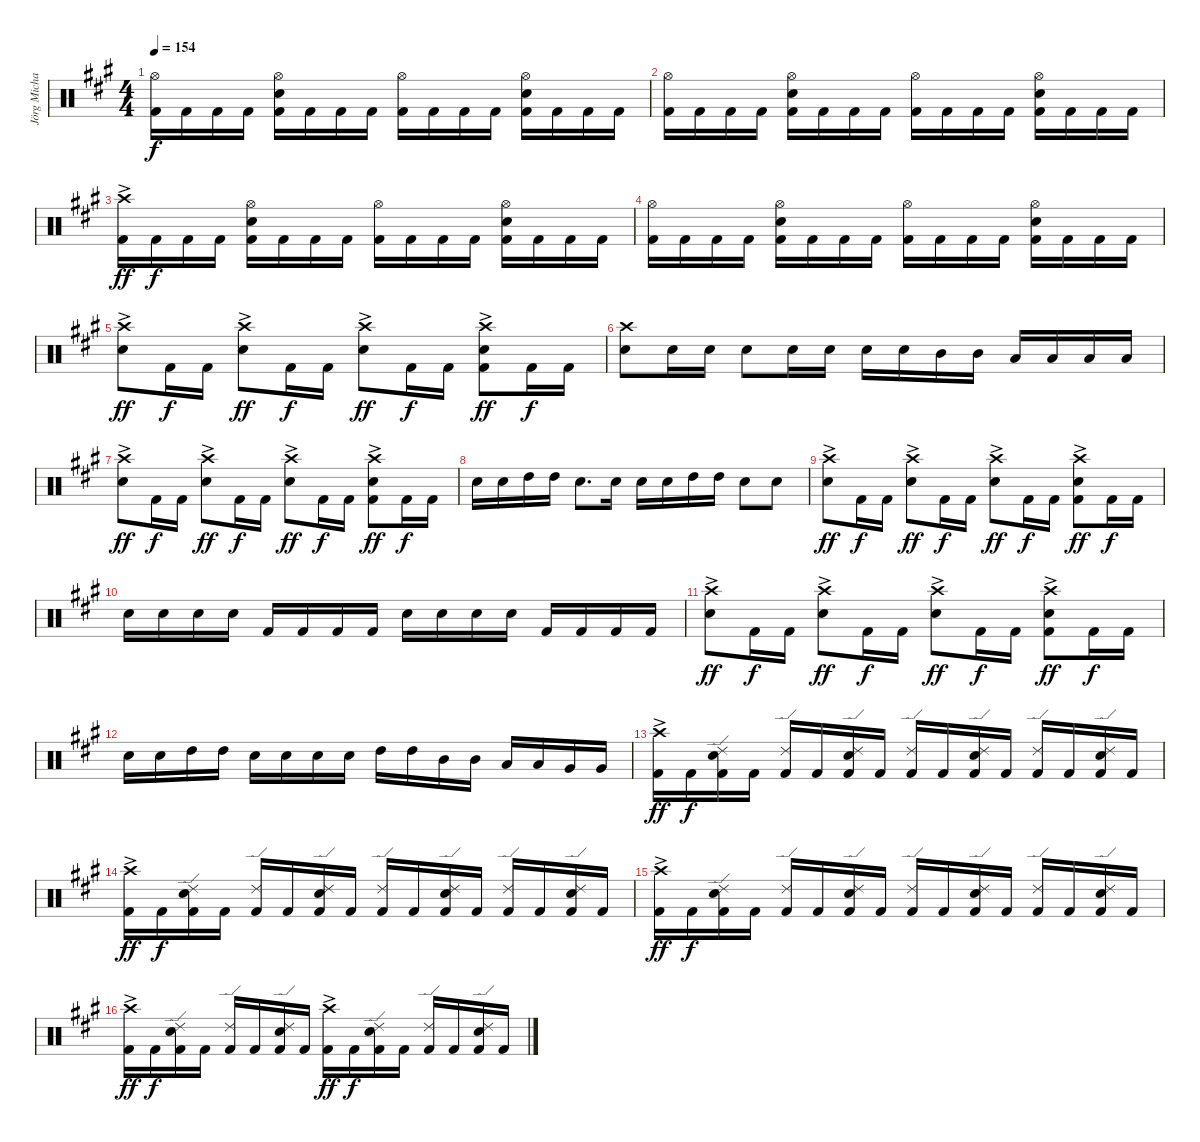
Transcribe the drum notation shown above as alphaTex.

\track ("Jörg Michael" "Jörg Micha") {instrument percussion}
\staff {score}
\articulation defaults
\ts (4 4)
\tempo 154
\clef neutral
\ks a
("Hi-Hat (open)" "Kick (hit) 2").16{dy f} "Kick (hit) 2".16 "Kick (hit) 2".16 "Kick (hit) 2".16 ("Electric Snare (hit)" "Kick (hit) 2" "Hi-Hat (open)").16 "Kick (hit) 2".16 "Kick (hit) 2".16 "Kick (hit) 2".16 ("Kick (hit) 2" "Hi-Hat (open)").16 "Kick (hit) 2".16 "Kick (hit) 2".16 "Kick (hit) 2".16 ("Electric Snare (hit)" "Kick (hit) 2" "Hi-Hat (open)").16 "Kick (hit) 2".16 "Kick (hit) 2".16 "Kick (hit) 2".16 |
("Hi-Hat (open)" "Kick (hit) 2").16 "Kick (hit) 2".16 "Kick (hit) 2".16 "Kick (hit) 2".16 ("Electric Snare (hit)" "Kick (hit) 2" "Hi-Hat (open)").16 "Kick (hit) 2".16 "Kick (hit) 2".16 "Kick (hit) 2".16 ("Kick (hit) 2" "Hi-Hat (open)").16 "Kick (hit) 2".16 "Kick (hit) 2".16 "Kick (hit) 2".16 ("Electric Snare (hit)" "Kick (hit) 2" "Hi-Hat (open)").16 "Kick (hit) 2".16 "Kick (hit) 2".16 "Kick (hit) 2".16 |
("Crash high (hit)"{ac} "Kick (hit) 2"{ac}).16{dy ff} "Kick (hit) 2".16{dy f} "Kick (hit) 2".16 "Kick (hit) 2".16 ("Electric Snare (hit)" "Kick (hit) 2" "Hi-Hat (open)").16 "Kick (hit) 2".16 "Kick (hit) 2".16 "Kick (hit) 2".16 ("Kick (hit) 2" "Hi-Hat (open)").16 "Kick (hit) 2".16 "Kick (hit) 2".16 "Kick (hit) 2".16 ("Electric Snare (hit)" "Kick (hit) 2" "Hi-Hat (open)").16 "Kick (hit) 2".16 "Kick (hit) 2".16 "Kick (hit) 2".16 |
("Hi-Hat (open)" "Kick (hit) 2").16 "Kick (hit) 2".16 "Kick (hit) 2".16 "Kick (hit) 2".16 ("Electric Snare (hit)" "Kick (hit) 2" "Hi-Hat (open)").16 "Kick (hit) 2".16 "Kick (hit) 2".16 "Kick (hit) 2".16 ("Kick (hit) 2" "Hi-Hat (open)").16 "Kick (hit) 2".16 "Kick (hit) 2".16 "Kick (hit) 2".16 ("Electric Snare (hit)" "Kick (hit) 2" "Hi-Hat (open)").16 "Kick (hit) 2".16 "Kick (hit) 2".16 "Kick (hit) 2".16 |
("Crash high (hit)"{ac} "Electric Snare (hit)").8{dy ff} "Kick (hit) 2".16{dy f} "Kick (hit) 2".16 ("Electric Snare (hit)"{ac} "Crash high (hit)"{ac}).8{dy ff} "Kick (hit) 2".16{dy f} "Kick (hit) 2".16 ("Electric Snare (hit)"{ac} "Crash high (hit)"{ac}).8{dy ff} "Kick (hit) 2".16{dy f} "Kick (hit) 2".16 ("Electric Snare (hit)"{ac} "Kick (hit) 2"{ac} "Crash high (hit)"{ac}).8{dy ff} "Kick (hit) 2".16{dy f} "Kick (hit) 2".16 |
("Crash high (hit)" "Electric Snare (hit)").8 "Electric Snare (hit)".16 "Electric Snare (hit)".16 "Electric Snare (hit)".8 "Snare (hit)".16 "Electric Snare (hit)".16 "Electric Snare (hit)".16 "Electric Snare (hit)".16 "Mid Tom (hit)".16 "Mid Tom (hit)".16 "Low Tom (hit)".16 "Low Tom (hit)".16 "Low Tom (hit)".16 "Low Tom (hit)".16 |
("Crash high (hit)"{ac} "Electric Snare (hit)").8{dy ff} "Kick (hit) 2".16{dy f} "Kick (hit) 2".16 ("Electric Snare (hit)"{ac} "Crash high (hit)"{ac}).8{dy ff} "Kick (hit) 2".16{dy f} "Kick (hit) 2".16 ("Electric Snare (hit)"{ac} "Crash high (hit)"{ac}).8{dy ff} "Kick (hit) 2".16{dy f} "Kick (hit) 2".16 ("Electric Snare (hit)"{ac} "Kick (hit) 2"{ac} "Crash high (hit)"{ac}).8{dy ff} "Kick (hit) 2".16{dy f} "Kick (hit) 2".16 |
"Electric Snare (hit)".16 "Electric Snare (hit)".16 "High Tom (hit)".16 "High Tom (hit)".16 "Electric Snare (hit)".8{d} "Electric Snare (hit)".16 "Electric Snare (hit)".16 "Electric Snare (hit)".16 "High Tom (hit)".16 "High Tom (hit)".16 "Electric Snare (hit)".8 "Electric Snare (hit)".8 |
("Crash high (hit)"{ac} "Electric Snare (hit)").8{dy ff} "Kick (hit) 2".16{dy f} "Kick (hit) 2".16 ("Electric Snare (hit)"{ac} "Crash high (hit)"{ac}).8{dy ff} "Kick (hit) 2".16{dy f} "Kick (hit) 2".16 ("Electric Snare (hit)"{ac} "Crash high (hit)"{ac}).8{dy ff} "Kick (hit) 2".16{dy f} "Kick (hit) 2".16 ("Electric Snare (hit)"{ac} "Kick (hit) 2"{ac} "Crash high (hit)"{ac}).8{dy ff} "Kick (hit) 2".16{dy f} "Kick (hit) 2".16 |
"Electric Snare (hit)".16 "Electric Snare (hit)".16 "Electric Snare (hit)".16 "Electric Snare (hit)".16 "Kick (hit) 2".16 "Kick (hit) 2".16 "Kick (hit) 2".16 "Kick (hit) 2".16 "Electric Snare (hit)".16 "Electric Snare (hit)".16 "Electric Snare (hit)".16 "Electric Snare (hit)".16 "Kick (hit) 2".16 "Kick (hit) 2".16 "Kick (hit) 2".16 "Kick (hit) 2".16 |
("Crash high (hit)"{ac} "Electric Snare (hit)").8{dy ff} "Kick (hit) 2".16{dy f} "Kick (hit) 2".16 ("Electric Snare (hit)"{ac} "Crash high (hit)"{ac}).8{dy ff} "Kick (hit) 2".16{dy f} "Kick (hit) 2".16 ("Electric Snare (hit)"{ac} "Crash high (hit)"{ac}).8{dy ff} "Kick (hit) 2".16{dy f} "Kick (hit) 2".16 ("Electric Snare (hit)"{ac} "Kick (hit) 2"{ac} "Crash high (hit)"{ac}).8{dy ff} "Kick (hit) 2".16{dy f} "Kick (hit) 2".16 |
"Electric Snare (hit)".16 "Electric Snare (hit)".16 "High Tom (hit)".16 "High Tom (hit)".16 "Electric Snare (hit)".16 "Electric Snare (hit)".16 "Electric Snare (hit)".16 "Electric Snare (hit)".16 "High Tom (hit)".16 "High Tom (hit)".16 "Mid Tom (hit)".16 "Mid Tom (hit)".16 "Low Tom (hit)".16 "Low Tom (hit)".16 "Very Low Tom (hit)".16 "Very Low Tom (hit)".16 |
("Crash high (hit)"{ac} "Kick (hit) 2"{ac}).16{dy ff} "Kick (hit) 2".16{dy f} ("Ride (edge) 2" "Kick (hit) 2" "Electric Snare (hit)").16 "Kick (hit) 2".16 ("Ride (edge) 2" "Kick (hit) 2").16 "Kick (hit) 2".16 ("Ride (edge) 2" "Kick (hit) 2" "Electric Snare (hit)").16 "Kick (hit) 2".16 ("Kick (hit) 2" "Ride (edge) 2").16 "Kick (hit) 2".16 ("Ride (edge) 2" "Kick (hit) 2" "Electric Snare (hit)").16 "Kick (hit) 2".16 ("Kick (hit) 2" "Ride (edge) 2").16 "Kick (hit) 2".16 ("Ride (edge) 2" "Kick (hit) 2" "Electric Snare (hit)").16 "Kick (hit) 2".16 |
("Crash high (hit)"{ac} "Kick (hit) 2"{ac}).16{dy ff} "Kick (hit) 2".16{dy f} ("Ride (edge) 2" "Kick (hit) 2" "Electric Snare (hit)").16 "Kick (hit) 2".16 ("Ride (edge) 2" "Kick (hit) 2").16 "Kick (hit) 2".16 ("Ride (edge) 2" "Kick (hit) 2" "Electric Snare (hit)").16 "Kick (hit) 2".16 ("Kick (hit) 2" "Ride (edge) 2").16 "Kick (hit) 2".16 ("Ride (edge) 2" "Kick (hit) 2" "Electric Snare (hit)").16 "Kick (hit) 2".16 ("Kick (hit) 2" "Ride (edge) 2").16 "Kick (hit) 2".16 ("Ride (edge) 2" "Kick (hit) 2" "Electric Snare (hit)").16 "Kick (hit) 2".16 |
("Crash high (hit)"{ac} "Kick (hit) 2"{ac}).16{dy ff} "Kick (hit) 2".16{dy f} ("Ride (edge) 2" "Kick (hit) 2" "Electric Snare (hit)").16 "Kick (hit) 2".16 ("Ride (edge) 2" "Kick (hit) 2").16 "Kick (hit) 2".16 ("Ride (edge) 2" "Kick (hit) 2" "Electric Snare (hit)").16 "Kick (hit) 2".16 ("Kick (hit) 2" "Ride (edge) 2").16 "Kick (hit) 2".16 ("Ride (edge) 2" "Kick (hit) 2" "Electric Snare (hit)").16 "Kick (hit) 2".16 ("Kick (hit) 2" "Ride (edge) 2").16 "Kick (hit) 2".16 ("Ride (edge) 2" "Kick (hit) 2" "Electric Snare (hit)").16 "Kick (hit) 2".16 |
("Crash high (hit)"{ac} "Kick (hit) 2"{ac}).16{dy ff} "Kick (hit) 2".16{dy f} ("Ride (edge) 2" "Kick (hit) 2" "Electric Snare (hit)").16 "Kick (hit) 2".16 ("Ride (edge) 2" "Kick (hit) 2").16 "Kick (hit) 2".16 ("Ride (edge) 2" "Kick (hit) 2" "Electric Snare (hit)").16 "Kick (hit) 2".16 ("Kick (hit) 2"{ac} "Crash high (hit)"{ac}).16{dy ff} "Kick (hit) 2".16{dy f} ("Ride (edge) 2" "Kick (hit) 2" "Electric Snare (hit)").16 "Kick (hit) 2".16 ("Kick (hit) 2" "Ride (edge) 2").16 "Kick (hit) 2".16 ("Ride (edge) 2" "Kick (hit) 2" "Electric Snare (hit)").16 "Kick (hit) 2".16
